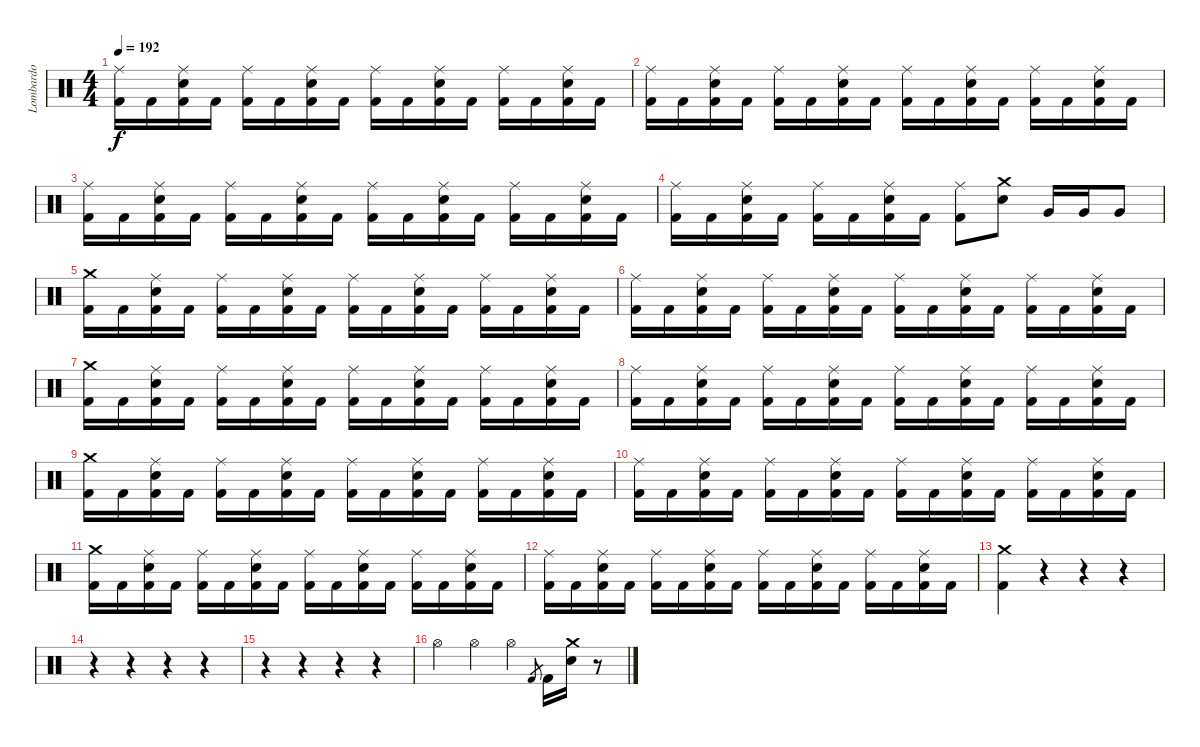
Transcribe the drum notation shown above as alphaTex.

\track ("Lombardo" "Lombardo") {instrument percussion}
\staff {score}
\articulation defaults
\ts (4 4)
\tempo 192
\clef neutral
\ks c
("Ride (middle)" "Kick (hit) 2").16{dy f} "Kick (hit) 2".16 ("Ride (middle)" "Snare (hit) 2" "Kick (hit) 2").16 "Kick (hit) 2".16 ("Ride (middle)" "Kick (hit) 2").16 "Kick (hit) 2".16 ("Ride (middle)" "Snare (hit) 2" "Kick (hit) 2").16 "Kick (hit) 2".16 ("Ride (middle)" "Kick (hit) 2").16 "Kick (hit) 2".16 ("Ride (middle)" "Snare (hit) 2" "Kick (hit) 2").16 "Kick (hit) 2".16 ("Ride (middle)" "Kick (hit) 2").16 "Kick (hit) 2".16 ("Ride (middle)" "Snare (hit) 2" "Kick (hit) 2").16 "Kick (hit) 2".16 |
("Ride (middle)" "Kick (hit) 2").16 "Kick (hit) 2".16 ("Ride (middle)" "Snare (hit) 2" "Kick (hit) 2").16 "Kick (hit) 2".16 ("Ride (middle)" "Kick (hit) 2").16 "Kick (hit) 2".16 ("Ride (middle)" "Snare (hit) 2" "Kick (hit) 2").16 "Kick (hit) 2".16 ("Ride (middle)" "Kick (hit) 2").16 "Kick (hit) 2".16 ("Ride (middle)" "Snare (hit) 2" "Kick (hit) 2").16 "Kick (hit) 2".16 ("Ride (middle)" "Kick (hit) 2").16 "Kick (hit) 2".16 ("Ride (middle)" "Snare (hit) 2" "Kick (hit) 2").16 "Kick (hit) 2".16 |
("Ride (middle)" "Kick (hit) 2").16 "Kick (hit) 2".16 ("Ride (middle)" "Snare (hit) 2" "Kick (hit) 2").16 "Kick (hit) 2".16 ("Ride (middle)" "Kick (hit) 2").16 "Kick (hit) 2".16 ("Ride (middle)" "Snare (hit) 2" "Kick (hit) 2").16 "Kick (hit) 2".16 ("Ride (middle)" "Kick (hit) 2").16 "Kick (hit) 2".16 ("Ride (middle)" "Snare (hit) 2" "Kick (hit) 2").16 "Kick (hit) 2".16 ("Ride (middle)" "Kick (hit) 2").16 "Kick (hit) 2".16 ("Ride (middle)" "Snare (hit) 2" "Kick (hit) 2").16 "Kick (hit) 2".16 |
("Ride (middle)" "Kick (hit) 2").16 "Kick (hit) 2".16 ("Ride (middle)" "Snare (hit) 2" "Kick (hit) 2").16 "Kick (hit) 2".16 ("Ride (middle)" "Kick (hit) 2").16 "Kick (hit) 2".16 ("Ride (middle)" "Snare (hit) 2" "Kick (hit) 2").16 "Kick (hit) 2".16 ("Ride (middle)" "Kick (hit) 2").8 ("Crash medium (hit)" "Snare (hit) 2").8 "Very Low Tom (hit)".16 "Very Low Tom (hit)".16 "Very Low Tom (hit)".8 |
("Crash medium (hit)" "Kick (hit) 2").16 "Kick (hit) 2".16 ("Ride (middle)" "Snare (hit) 2" "Kick (hit) 2").16 "Kick (hit) 2".16 ("Ride (middle)" "Kick (hit) 2").16 "Kick (hit) 2".16 ("Ride (middle)" "Snare (hit) 2" "Kick (hit) 2").16 "Kick (hit) 2".16 ("Ride (middle)" "Kick (hit) 2").16 "Kick (hit) 2".16 ("Ride (middle)" "Snare (hit) 2" "Kick (hit) 2").16 "Kick (hit) 2".16 ("Ride (middle)" "Kick (hit) 2").16 "Kick (hit) 2".16 ("Ride (middle)" "Snare (hit) 2" "Kick (hit) 2").16 "Kick (hit) 2".16 |
("Ride (middle)" "Kick (hit) 2").16 "Kick (hit) 2".16 ("Ride (middle)" "Snare (hit) 2" "Kick (hit) 2").16 "Kick (hit) 2".16 ("Ride (middle)" "Kick (hit) 2").16 "Kick (hit) 2".16 ("Ride (middle)" "Snare (hit) 2" "Kick (hit) 2").16 "Kick (hit) 2".16 ("Ride (middle)" "Kick (hit) 2").16 "Kick (hit) 2".16 ("Ride (middle)" "Snare (hit) 2" "Kick (hit) 2").16 "Kick (hit) 2".16 ("Ride (middle)" "Kick (hit) 2").16 "Kick (hit) 2".16 ("Ride (middle)" "Snare (hit) 2" "Kick (hit) 2").16 "Kick (hit) 2".16 |
("Crash medium (hit)" "Kick (hit) 2").16 "Kick (hit) 2".16 ("Ride (middle)" "Snare (hit) 2" "Kick (hit) 2").16 "Kick (hit) 2".16 ("Ride (middle)" "Kick (hit) 2").16 "Kick (hit) 2".16 ("Ride (middle)" "Snare (hit) 2" "Kick (hit) 2").16 "Kick (hit) 2".16 ("Ride (middle)" "Kick (hit) 2").16 "Kick (hit) 2".16 ("Ride (middle)" "Snare (hit) 2" "Kick (hit) 2").16 "Kick (hit) 2".16 ("Ride (middle)" "Kick (hit) 2").16 "Kick (hit) 2".16 ("Ride (middle)" "Snare (hit) 2" "Kick (hit) 2").16 "Kick (hit) 2".16 |
("Ride (middle)" "Kick (hit) 2").16 "Kick (hit) 2".16 ("Ride (middle)" "Snare (hit) 2" "Kick (hit) 2").16 "Kick (hit) 2".16 ("Ride (middle)" "Kick (hit) 2").16 "Kick (hit) 2".16 ("Ride (middle)" "Snare (hit) 2" "Kick (hit) 2").16 "Kick (hit) 2".16 ("Ride (middle)" "Kick (hit) 2").16 "Kick (hit) 2".16 ("Ride (middle)" "Snare (hit) 2" "Kick (hit) 2").16 "Kick (hit) 2".16 ("Ride (middle)" "Kick (hit) 2").16 "Kick (hit) 2".16 ("Ride (middle)" "Snare (hit) 2" "Kick (hit) 2").16 "Kick (hit) 2".16 |
("Crash medium (hit)" "Kick (hit) 2").16 "Kick (hit) 2".16 ("Ride (middle)" "Snare (hit) 2" "Kick (hit) 2").16 "Kick (hit) 2".16 ("Ride (middle)" "Kick (hit) 2").16 "Kick (hit) 2".16 ("Ride (middle)" "Snare (hit) 2" "Kick (hit) 2").16 "Kick (hit) 2".16 ("Ride (middle)" "Kick (hit) 2").16 "Kick (hit) 2".16 ("Ride (middle)" "Snare (hit) 2" "Kick (hit) 2").16 "Kick (hit) 2".16 ("Ride (middle)" "Kick (hit) 2").16 "Kick (hit) 2".16 ("Ride (middle)" "Snare (hit) 2" "Kick (hit) 2").16 "Kick (hit) 2".16 |
("Ride (middle)" "Kick (hit) 2").16 "Kick (hit) 2".16 ("Ride (middle)" "Snare (hit) 2" "Kick (hit) 2").16 "Kick (hit) 2".16 ("Ride (middle)" "Kick (hit) 2").16 "Kick (hit) 2".16 ("Ride (middle)" "Snare (hit) 2" "Kick (hit) 2").16 "Kick (hit) 2".16 ("Ride (middle)" "Kick (hit) 2").16 "Kick (hit) 2".16 ("Ride (middle)" "Snare (hit) 2" "Kick (hit) 2").16 "Kick (hit) 2".16 ("Ride (middle)" "Kick (hit) 2").16 "Kick (hit) 2".16 ("Ride (middle)" "Snare (hit) 2" "Kick (hit) 2").16 "Kick (hit) 2".16 |
("Crash medium (hit)" "Kick (hit) 2").16 "Kick (hit) 2".16 ("Ride (middle)" "Snare (hit) 2" "Kick (hit) 2").16 "Kick (hit) 2".16 ("Ride (middle)" "Kick (hit) 2").16 "Kick (hit) 2".16 ("Ride (middle)" "Snare (hit) 2" "Kick (hit) 2").16 "Kick (hit) 2".16 ("Ride (middle)" "Kick (hit) 2").16 "Kick (hit) 2".16 ("Ride (middle)" "Snare (hit) 2" "Kick (hit) 2").16 "Kick (hit) 2".16 ("Ride (middle)" "Kick (hit) 2").16 "Kick (hit) 2".16 ("Ride (middle)" "Snare (hit) 2" "Kick (hit) 2").16 "Kick (hit) 2".16 |
("Ride (middle)" "Kick (hit) 2").16 "Kick (hit) 2".16 ("Ride (middle)" "Snare (hit) 2" "Kick (hit) 2").16 "Kick (hit) 2".16 ("Ride (middle)" "Kick (hit) 2").16 "Kick (hit) 2".16 ("Ride (middle)" "Snare (hit) 2" "Kick (hit) 2").16 "Kick (hit) 2".16 ("Ride (middle)" "Kick (hit) 2").16 "Kick (hit) 2".16 ("Ride (middle)" "Snare (hit) 2" "Kick (hit) 2").16 "Kick (hit) 2".16 ("Ride (middle)" "Kick (hit) 2").16 "Kick (hit) 2".16 ("Ride (middle)" "Snare (hit) 2" "Kick (hit) 2").16 "Kick (hit) 2".16 |
("Crash medium (hit)" "Kick (hit) 2").4 r.4 r.4 r.4 |
r.4 r.4 r.4 r.4 |
r.4 r.4 r.4 r.4 |
"Hi-Hat (open)".4 "Hi-Hat (open)".4 "Hi-Hat (open)".4 "Kick (hit) 2".8{gr} "Kick (hit) 2".16 ("Crash medium (hit)" "Snare (hit) 2").16 r.8
